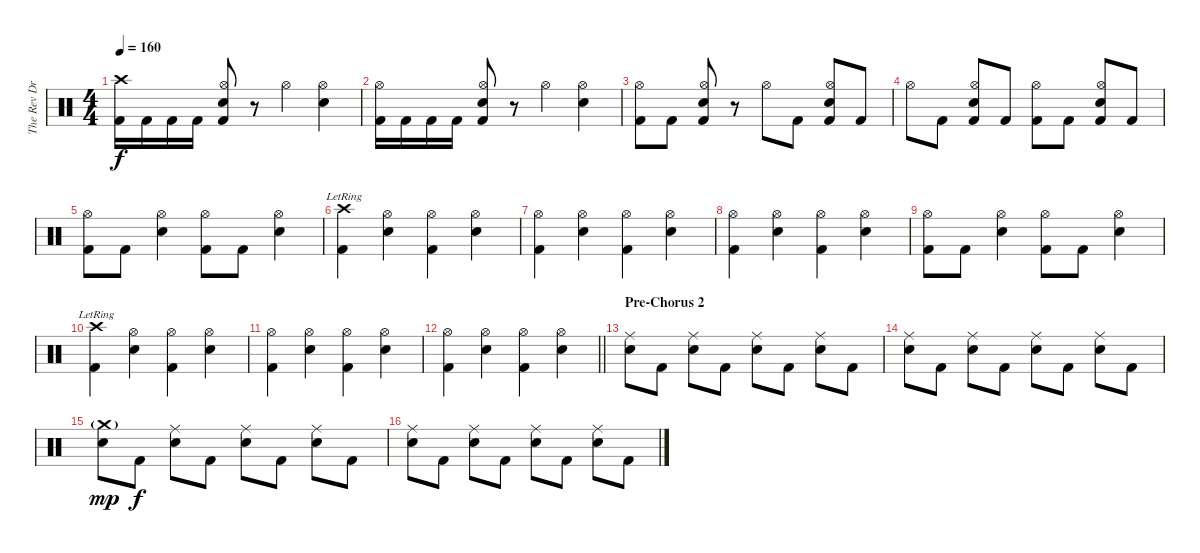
\track ("The Rev Drum" "The Rev Dr") {instrument percussion}
\staff {score}
\articulation defaults
\ts (4 4)
\tempo 160
\clef neutral
\ks c
("Crash high (hit)" "Kick (hit) 2").16{dy f} "Kick (hit) 2".16 "Kick (hit) 2".16 "Kick (hit) 2".16 ("Hi-Hat (open)" "Electric Snare (hit)" "Kick (hit) 2").8 r.8 "Hi-Hat (open)".4 ("Hi-Hat (open)" "Electric Snare (hit)").4 |
("Hi-Hat (open)" "Kick (hit) 2").16 "Kick (hit) 2".16 "Kick (hit) 2".16 "Kick (hit) 2".16 ("Hi-Hat (open)" "Electric Snare (hit)" "Kick (hit) 2").8 r.8 "Hi-Hat (open)".4 ("Hi-Hat (open)" "Electric Snare (hit)").4 |
("Hi-Hat (open)" "Kick (hit) 2").8 "Kick (hit) 2".8 ("Hi-Hat (open)" "Electric Snare (hit)" "Kick (hit) 2").8 r.8 "Hi-Hat (open)".8 "Kick (hit) 2".8 ("Hi-Hat (open)" "Electric Snare (hit)" "Kick (hit) 2").8 "Kick (hit) 2".8 |
"Hi-Hat (open)".8 "Kick (hit) 2".8 ("Hi-Hat (open)" "Electric Snare (hit)" "Kick (hit) 2").8 "Kick (hit) 2".8 ("Hi-Hat (open)" "Kick (hit) 2").8 "Kick (hit) 2".8 ("Hi-Hat (open)" "Electric Snare (hit)" "Kick (hit) 2").8 "Kick (hit) 2".8 |
("Hi-Hat (open)" "Kick (hit) 2").8 "Kick (hit) 2".8 ("Hi-Hat (open)" "Electric Snare (hit)").4 ("Hi-Hat (open)" "Kick (hit) 2").8 "Kick (hit) 2".8 ("Hi-Hat (open)" "Electric Snare (hit)").4 |
("Crash high (hit)" "Kick (hit) 2"{lr}).4 ("Hi-Hat (open)" "Electric Snare (hit)").4 ("Hi-Hat (open)" "Kick (hit) 2").4 ("Hi-Hat (open)" "Electric Snare (hit)").4 |
("Hi-Hat (open)" "Kick (hit) 2").4 ("Hi-Hat (open)" "Electric Snare (hit)").4 ("Hi-Hat (open)" "Kick (hit) 2").4 ("Hi-Hat (open)" "Electric Snare (hit)").4 |
("Hi-Hat (open)" "Kick (hit) 2").4 ("Hi-Hat (open)" "Electric Snare (hit)").4 ("Hi-Hat (open)" "Kick (hit) 2").4 ("Hi-Hat (open)" "Electric Snare (hit)").4 |
("Hi-Hat (open)" "Kick (hit) 2").8 "Kick (hit) 2".8 ("Hi-Hat (open)" "Electric Snare (hit)").4 ("Hi-Hat (open)" "Kick (hit) 2").8 "Kick (hit) 2".8 ("Hi-Hat (open)" "Electric Snare (hit)").4 |
("Crash high (hit)" "Kick (hit) 2"{lr}).4 ("Hi-Hat (open)" "Electric Snare (hit)").4 ("Hi-Hat (open)" "Kick (hit) 2").4 ("Hi-Hat (open)" "Electric Snare (hit)").4 |
("Hi-Hat (open)" "Kick (hit) 2").4 ("Hi-Hat (open)" "Electric Snare (hit)").4 ("Hi-Hat (open)" "Kick (hit) 2").4 ("Hi-Hat (open)" "Electric Snare (hit)").4 |
\barLineRight lightlight
("Hi-Hat (open)" "Kick (hit) 2").4 ("Hi-Hat (open)" "Electric Snare (hit)").4 ("Hi-Hat (open)" "Kick (hit) 2").4 ("Hi-Hat (open)" "Electric Snare (hit)").4 |
\section ("" "Pre-Chorus 2")
("Ride (middle)" "Electric Snare (hit)").8 "Kick (hit) 2".8 ("Ride (middle)" "Electric Snare (hit)").8 "Kick (hit) 2".8 ("Ride (middle)" "Electric Snare (hit)").8 "Kick (hit) 2".8 ("Ride (middle)" "Electric Snare (hit)").8 "Kick (hit) 2".8 |
("Ride (middle)" "Electric Snare (hit)").8 "Kick (hit) 2".8 ("Ride (middle)" "Electric Snare (hit)").8 "Kick (hit) 2".8 ("Ride (middle)" "Electric Snare (hit)").8 "Kick (hit) 2".8 ("Ride (middle)" "Electric Snare (hit)").8 "Kick (hit) 2".8 |
("Crash medium (hit)"{g} "Electric Snare (hit)").8{dy mp} "Kick (hit) 2".8{dy f} ("Ride (middle)" "Electric Snare (hit)").8 "Kick (hit) 2".8 ("Ride (middle)" "Electric Snare (hit)").8 "Kick (hit) 2".8 ("Ride (middle)" "Electric Snare (hit)").8 "Kick (hit) 2".8 |
("Ride (middle)" "Electric Snare (hit)").8 "Kick (hit) 2".8 ("Ride (middle)" "Electric Snare (hit)").8 "Kick (hit) 2".8 ("Ride (middle)" "Electric Snare (hit)").8 "Kick (hit) 2".8 ("Ride (middle)" "Electric Snare (hit)").8 "Kick (hit) 2".8
